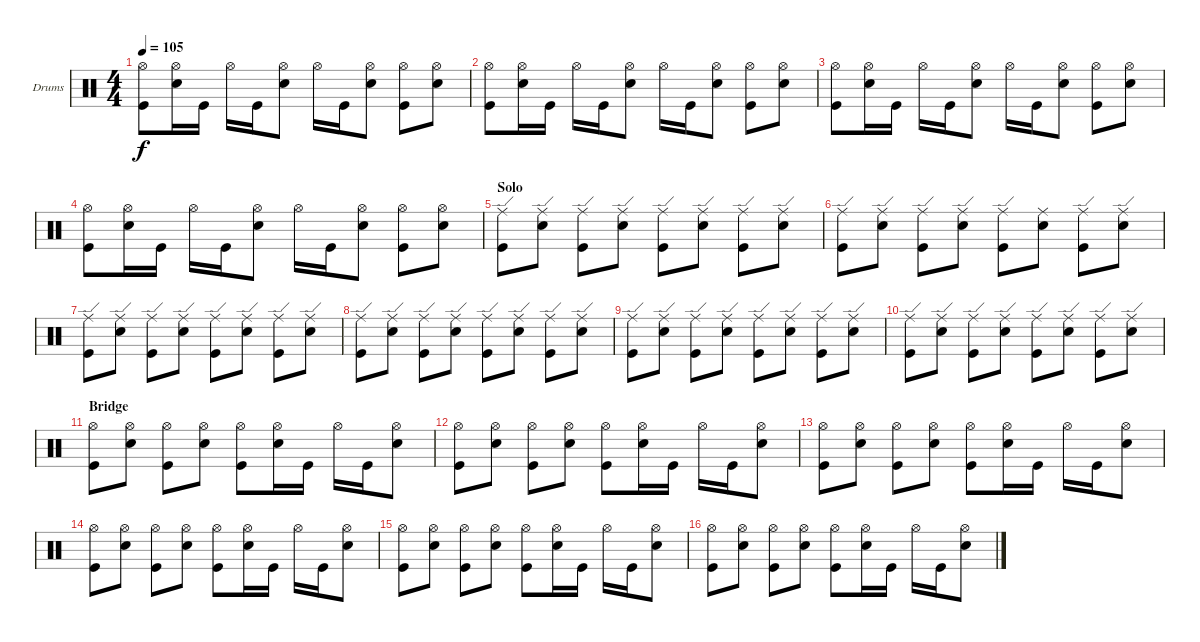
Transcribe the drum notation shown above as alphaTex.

\bracketExtendMode groupsimilarinstruments
\firstSystemTrackNameOrientation horizontal
\otherSystemsTrackNameOrientation horizontal
\track ("Fabrizio" "Drums") {instrument percussion}
\staff {score}
\articulation defaults
\ts (4 4)
\tempo 105
\clef neutral
\ks c
("Kick (hit)" "Hi-Hat (open)").8{dy f} ("Snare (hit) 2" "Hi-Hat (open)").16 "Kick (hit)".16 "Hi-Hat (open)".16 "Kick (hit)".16 ("Snare (hit) 2" "Hi-Hat (open)").8 "Hi-Hat (open)".16 "Kick (hit)".16 ("Snare (hit) 2" "Hi-Hat (open)").8 ("Hi-Hat (open)" "Kick (hit)").8 ("Snare (hit) 2" "Hi-Hat (open)").8 |
("Kick (hit)" "Hi-Hat (open)").8 ("Snare (hit) 2" "Hi-Hat (open)").16 "Kick (hit)".16 "Hi-Hat (open)".16 "Kick (hit)".16 ("Snare (hit) 2" "Hi-Hat (open)").8 "Hi-Hat (open)".16 "Kick (hit)".16 ("Snare (hit) 2" "Hi-Hat (open)").8 ("Hi-Hat (open)" "Kick (hit)").8 ("Snare (hit) 2" "Hi-Hat (open)").8 |
("Kick (hit)" "Hi-Hat (open)").8 ("Snare (hit) 2" "Hi-Hat (open)").16 "Kick (hit)".16 "Hi-Hat (open)".16 "Kick (hit)".16 ("Snare (hit) 2" "Hi-Hat (open)").8 "Hi-Hat (open)".16 "Kick (hit)".16 ("Snare (hit) 2" "Hi-Hat (open)").8 ("Hi-Hat (open)" "Kick (hit)").8 ("Snare (hit) 2" "Hi-Hat (open)").8 |
("Kick (hit)" "Hi-Hat (open)").8 ("Snare (hit) 2" "Hi-Hat (open)").16 "Kick (hit)".16 "Hi-Hat (open)".16 "Kick (hit)".16 ("Snare (hit) 2" "Hi-Hat (open)").8 "Hi-Hat (open)".16 "Kick (hit)".16 ("Snare (hit) 2" "Hi-Hat (open)").8 ("Hi-Hat (open)" "Kick (hit)").8 ("Snare (hit) 2" "Hi-Hat (open)").8 |
\section ("" "Solo")
("Ride (edge)" "Kick (hit)").8 ("Ride (edge)" "Snare (hit) 2").8 ("Ride (edge)" "Kick (hit)").8 ("Ride (edge)" "Snare (hit) 2").8 ("Ride (edge)" "Kick (hit)").8 ("Ride (edge)" "Snare (hit) 2").8 ("Ride (edge)" "Kick (hit)").8 ("Ride (edge)" "Snare (hit) 2").8 |
("Ride (edge)" "Kick (hit)").8 ("Ride (edge)" "Snare (hit) 2").8 ("Ride (edge)" "Kick (hit)").8 ("Ride (edge)" "Snare (hit) 2").8 ("Ride (edge)" "Kick (hit)").8 ("Ride (middle)" "Snare (hit) 2").8 ("Ride (edge)" "Kick (hit)").8 ("Ride (edge)" "Snare (hit) 2").8 |
("Ride (edge)" "Kick (hit)").8 ("Ride (edge)" "Snare (hit) 2").8 ("Ride (edge)" "Kick (hit)").8 ("Ride (edge)" "Snare (hit) 2").8 ("Ride (edge)" "Kick (hit)").8 ("Snare (hit) 2" "Ride (edge)").8 ("Ride (edge)" "Kick (hit)").8 ("Ride (edge)" "Snare (hit) 2").8 |
("Ride (edge)" "Kick (hit)").8 ("Ride (edge)" "Snare (hit) 2").8 ("Ride (edge)" "Kick (hit)").8 ("Ride (edge)" "Snare (hit) 2").8 ("Ride (edge)" "Kick (hit)").8 ("Ride (edge)" "Snare (hit) 2").8 ("Ride (edge)" "Kick (hit)").8 ("Ride (edge)" "Snare (hit) 2").8 |
("Ride (edge)" "Kick (hit)").8 ("Ride (edge)" "Snare (hit) 2").8 ("Ride (edge)" "Kick (hit)").8 ("Ride (edge)" "Snare (hit) 2").8 ("Ride (edge)" "Kick (hit)").8 ("Ride (edge)" "Snare (hit) 2").8 ("Ride (edge)" "Kick (hit)").8 ("Ride (edge)" "Snare (hit) 2").8 |
("Ride (edge)" "Kick (hit)").8 ("Ride (edge)" "Snare (hit) 2").8 ("Ride (edge)" "Kick (hit)").8 ("Ride (edge)" "Snare (hit) 2").8 ("Ride (edge)" "Kick (hit)").8 ("Ride (edge)" "Snare (hit) 2").8 ("Ride (edge)" "Kick (hit)").8 ("Ride (edge)" "Snare (hit) 2").8 |
\section ("" "Bridge")
("Kick (hit)" "Hi-Hat (open)").8 ("Snare (hit) 2" "Hi-Hat (open)").8 ("Kick (hit)" "Hi-Hat (open)").8 ("Snare (hit) 2" "Hi-Hat (open)").8 ("Kick (hit)" "Hi-Hat (open)").8 ("Snare (hit) 2" "Hi-Hat (open)").16 "Kick (hit)".16 "Hi-Hat (open)".16 "Kick (hit)".16 ("Snare (hit) 2" "Hi-Hat (open)").8 |
("Kick (hit)" "Hi-Hat (open)").8 ("Snare (hit) 2" "Hi-Hat (open)").8 ("Kick (hit)" "Hi-Hat (open)").8 ("Snare (hit) 2" "Hi-Hat (open)").8 ("Kick (hit)" "Hi-Hat (open)").8 ("Snare (hit) 2" "Hi-Hat (open)").16 "Kick (hit)".16 "Hi-Hat (open)".16 "Kick (hit)".16 ("Snare (hit) 2" "Hi-Hat (open)").8 |
("Kick (hit)" "Hi-Hat (open)").8 ("Snare (hit) 2" "Hi-Hat (open)").8 ("Kick (hit)" "Hi-Hat (open)").8 ("Snare (hit) 2" "Hi-Hat (open)").8 ("Kick (hit)" "Hi-Hat (open)").8 ("Snare (hit) 2" "Hi-Hat (open)").16 "Kick (hit)".16 "Hi-Hat (open)".16 "Kick (hit)".16 ("Snare (hit) 2" "Hi-Hat (open)").8 |
("Kick (hit)" "Hi-Hat (open)").8 ("Snare (hit) 2" "Hi-Hat (open)").8 ("Kick (hit)" "Hi-Hat (open)").8 ("Snare (hit) 2" "Hi-Hat (open)").8 ("Kick (hit)" "Hi-Hat (open)").8 ("Snare (hit) 2" "Hi-Hat (open)").16 "Kick (hit)".16 "Hi-Hat (open)".16 "Kick (hit)".16 ("Snare (hit) 2" "Hi-Hat (open)").8 |
("Kick (hit)" "Hi-Hat (open)").8 ("Snare (hit) 2" "Hi-Hat (open)").8 ("Kick (hit)" "Hi-Hat (open)").8 ("Snare (hit) 2" "Hi-Hat (open)").8 ("Kick (hit)" "Hi-Hat (open)").8 ("Snare (hit) 2" "Hi-Hat (open)").16 "Kick (hit)".16 "Hi-Hat (open)".16 "Kick (hit)".16 ("Snare (hit) 2" "Hi-Hat (open)").8 |
("Kick (hit)" "Hi-Hat (open)").8 ("Snare (hit) 2" "Hi-Hat (open)").8 ("Kick (hit)" "Hi-Hat (open)").8 ("Snare (hit) 2" "Hi-Hat (open)").8 ("Kick (hit)" "Hi-Hat (open)").8 ("Snare (hit) 2" "Hi-Hat (open)").16 "Kick (hit)".16 "Hi-Hat (open)".16 "Kick (hit)".16 ("Snare (hit) 2" "Hi-Hat (open)").8
